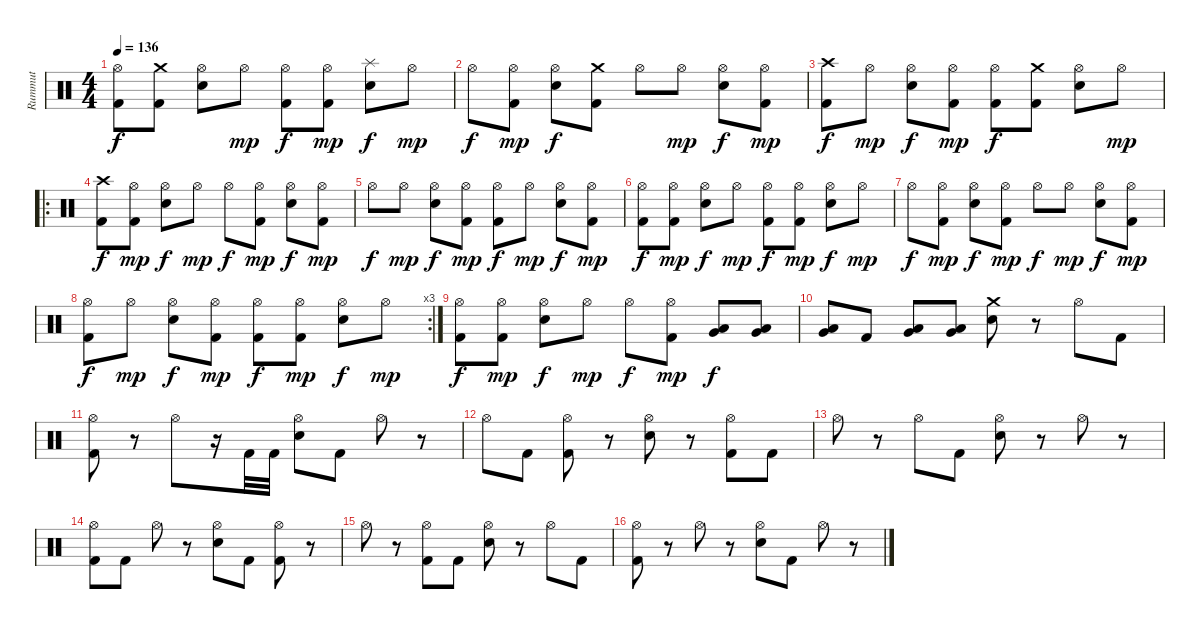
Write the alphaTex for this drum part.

\track ("Rummut" "Rummut") {instrument percussion}
\staff {score}
\articulation defaults
\ts (4 4)
\tempo 136
\clef neutral
\ks c
("Hi-Hat (open)" "Kick (hit) 2").8{dy f} ("Crash medium (hit)" "Kick (hit) 2").8 ("Hi-Hat (open)" "Electric Snare (hit)").8 "Hi-Hat (open)".8{dy mp} ("Hi-Hat (open)" "Kick (hit) 2").8{dy f} ("Hi-Hat (open)" "Kick (hit) 2").8{dy mp} ("Splash (hit)" "Electric Snare (hit)").8{dy f} "Hi-Hat (open)".8{dy mp} |
"Hi-Hat (open)".8{dy f} ("Hi-Hat (open)" "Kick (hit) 2").8{dy mp} ("Hi-Hat (open)" "Electric Snare (hit)").8{dy f} ("Crash medium (hit)" "Kick (hit) 2").8 "Hi-Hat (open)".8 "Hi-Hat (open)".8{dy mp} ("Hi-Hat (open)" "Electric Snare (hit)").8{dy f} ("Hi-Hat (open)" "Kick (hit) 2").8{dy mp} |
("Crash high (hit)" "Kick (hit) 2").8{dy f} "Hi-Hat (open)".8{dy mp} ("Hi-Hat (open)" "Electric Snare (hit)").8{dy f} ("Hi-Hat (open)" "Kick (hit) 2").8{dy mp} ("Hi-Hat (open)" "Kick (hit) 2").8{dy f} ("Crash medium (hit)" "Kick (hit) 2").8 ("Hi-Hat (open)" "Electric Snare (hit)").8 "Hi-Hat (open)".8{dy mp} |
\ro
("Crash high (hit)" "Kick (hit) 2").8{dy f} ("Hi-Hat (open)" "Kick (hit) 2").8{dy mp} ("Hi-Hat (open)" "Electric Snare (hit)").8{dy f} "Hi-Hat (open)".8{dy mp} "Hi-Hat (open)".8{dy f} ("Hi-Hat (open)" "Kick (hit) 2").8{dy mp} ("Hi-Hat (open)" "Electric Snare (hit)").8{dy f} ("Hi-Hat (open)" "Kick (hit) 2").8{dy mp} |
"Hi-Hat (open)".8{dy f} "Hi-Hat (open)".8{dy mp} ("Hi-Hat (open)" "Electric Snare (hit)").8{dy f} ("Hi-Hat (open)" "Kick (hit) 2").8{dy mp} ("Hi-Hat (open)" "Kick (hit) 2").8{dy f} "Hi-Hat (open)".8{dy mp} ("Hi-Hat (open)" "Electric Snare (hit)").8{dy f} ("Hi-Hat (open)" "Kick (hit) 2").8{dy mp} |
("Hi-Hat (open)" "Kick (hit) 2").8{dy f} ("Hi-Hat (open)" "Kick (hit) 2").8{dy mp} ("Hi-Hat (open)" "Electric Snare (hit)").8{dy f} "Hi-Hat (open)".8{dy mp} ("Hi-Hat (open)" "Kick (hit) 2").8{dy f} ("Hi-Hat (open)" "Kick (hit) 2").8{dy mp} ("Hi-Hat (open)" "Electric Snare (hit)").8{dy f} "Hi-Hat (open)".8{dy mp} |
"Hi-Hat (open)".8{dy f} ("Hi-Hat (open)" "Kick (hit) 2").8{dy mp} ("Hi-Hat (open)" "Electric Snare (hit)").8{dy f} ("Hi-Hat (open)" "Kick (hit) 2").8{dy mp} "Hi-Hat (open)".8{dy f} "Hi-Hat (open)".8{dy mp} ("Hi-Hat (open)" "Electric Snare (hit)").8{dy f} ("Hi-Hat (open)" "Kick (hit) 2").8{dy mp} |
\rc 3
("Hi-Hat (open)" "Kick (hit) 2").8{dy f} "Hi-Hat (open)".8{dy mp} ("Hi-Hat (open)" "Electric Snare (hit)").8{dy f} ("Hi-Hat (open)" "Kick (hit) 2").8{dy mp} ("Hi-Hat (open)" "Kick (hit) 2").8{dy f} ("Hi-Hat (open)" "Kick (hit) 2").8{dy mp} ("Hi-Hat (open)" "Electric Snare (hit)").8{dy f} "Hi-Hat (open)".8{dy mp} |
("Hi-Hat (open)" "Kick (hit) 2").8{dy f} ("Hi-Hat (open)" "Kick (hit) 2").8{dy mp} ("Hi-Hat (open)" "Electric Snare (hit)").8{dy f} "Hi-Hat (open)".8{dy mp} "Hi-Hat (open)".8{dy f} ("Hi-Hat (open)" "Kick (hit) 2").8{dy mp} ("Very Low Tom (hit)" "Low Floor Tom (hit)").8{dy f} ("Very Low Tom (hit)" "Low Floor Tom (hit)").8 |
("Very Low Tom (hit)" "Low Floor Tom (hit)").8 "Kick (hit) 2".8 ("Very Low Tom (hit)" "Low Floor Tom (hit)").8 ("Very Low Tom (hit)" "Low Floor Tom (hit)").8 ("Crash medium (hit)" "Electric Snare (hit)").8 r.8 "Hi-Hat (open)".8 "Kick (hit) 2".8 |
("Hi-Hat (open)" "Kick (hit) 2").8 r.8 "Hi-Hat (open)".8 r.16 "Kick (hit) 2".32 "Kick (hit) 2".32 ("Hi-Hat (open)" "Electric Snare (hit)").8 "Kick (hit) 2".8 "Hi-Hat (open)".8 r.8 |
"Hi-Hat (open)".8 "Kick (hit) 2".8 ("Hi-Hat (open)" "Kick (hit) 2").8 r.8 ("Hi-Hat (open)" "Electric Snare (hit)").8 r.8 ("Hi-Hat (open)" "Kick (hit) 2").8 "Kick (hit) 2".8 |
"Hi-Hat (open)".8 r.8 "Hi-Hat (open)".8 "Kick (hit) 2".8 ("Hi-Hat (open)" "Electric Snare (hit)").8 r.8 "Hi-Hat (open)".8 r.8 |
("Hi-Hat (open)" "Kick (hit) 2").8 "Kick (hit) 2".8 "Hi-Hat (open)".8 r.8 ("Hi-Hat (open)" "Electric Snare (hit)").8 "Kick (hit) 2".8 ("Hi-Hat (open)" "Kick (hit) 2").8 r.8 |
"Hi-Hat (open)".8 r.8 ("Hi-Hat (open)" "Kick (hit) 2").8 "Kick (hit) 2".8 ("Hi-Hat (open)" "Electric Snare (hit)").8 r.8 "Hi-Hat (open)".8 "Kick (hit) 2".8 |
("Hi-Hat (open)" "Kick (hit) 2").8 r.8 "Hi-Hat (open)".8 r.8 ("Hi-Hat (open)" "Electric Snare (hit)").8 "Kick (hit) 2".8 "Hi-Hat (open)".8 r.8
